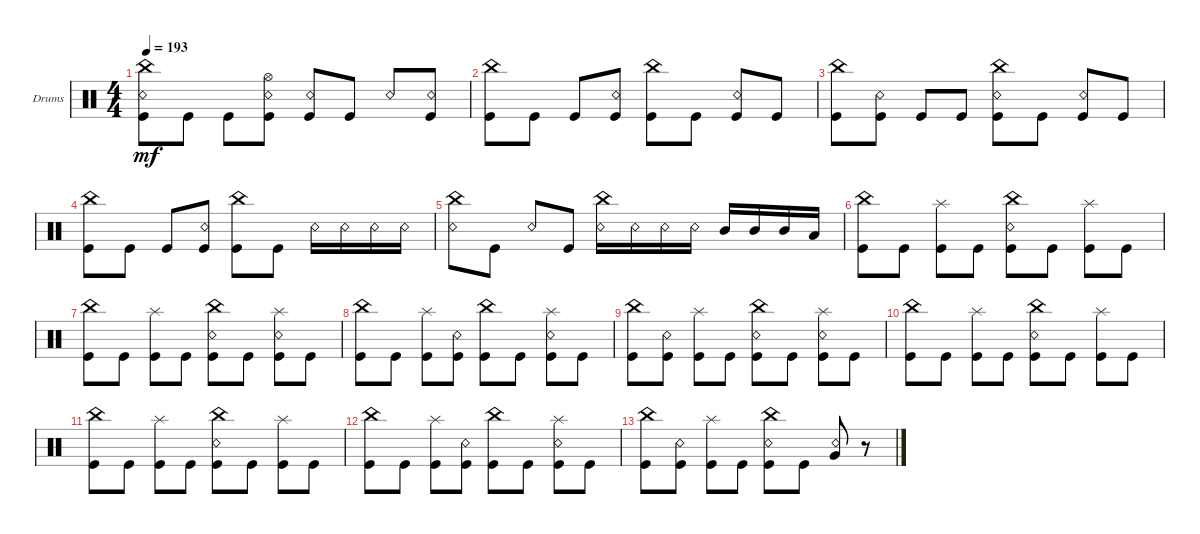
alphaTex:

\defaultSystemsLayout 4
\bracketExtendMode groupsimilarinstruments
\firstSystemTrackNameOrientation horizontal
\otherSystemsTrackNameOrientation horizontal
\track ("Drumkit" "Drums") {multiBarRest instrument percussion}
\staff {score}
\articulation defaults
\ts (4 4)
\tempo 193
\clef neutral
\scale
0.333333
\ks c
("Kick (hit)" "Snare (rim shot)" "China (hit)").8{dy mf} "Kick (hit)".8 "Kick (hit)".8 ("Hi-Hat (open)" "Kick (hit)" "Snare (rim shot)").8 ("Kick (hit)" "Snare (rim shot)").8 "Kick (hit)".8 "Snare (rim shot)".8 ("Kick (hit)" "Snare (rim shot)").8 |
\scale
0.333333 ("Kick (hit)" "China (hit)").8 "Kick (hit)".8 "Kick (hit)".8 ("Kick (hit)" "Snare (rim shot)").8 ("Kick (hit)" "China (hit)").8 "Kick (hit)".8 ("Kick (hit)" "Snare (rim shot)").8 "Kick (hit)".8 |
\scale
0.333333 ("Kick (hit)" "China (hit)").8 ("Snare (rim shot)" "Kick (hit)").8 "Kick (hit)".8 "Kick (hit)".8 ("Kick (hit)" "Snare (rim shot)" "China (hit)").8 "Kick (hit)".8 ("Kick (hit)" "Snare (rim shot)").8 "Kick (hit)".8 |
\scale
0.333333 ("Kick (hit)" "China (hit)").8 "Kick (hit)".8 "Kick (hit)".8 ("Kick (hit)" "Snare (rim shot)").8 ("Kick (hit)" "China (hit)").8 "Kick (hit)".8 "Snare (rim shot)".16 "Snare (rim shot)".16 "Snare (rim shot)".16 "Snare (rim shot)".16 |
\scale
0.333333 ("China (hit)" "Snare (rim shot)").8 "Kick (hit)".8 "Snare (rim shot)".8 "Kick (hit)".8 ("Snare (rim shot)" "China (hit)").16 "Snare (rim shot)".16 "Snare (rim shot)".16 "Snare (rim shot)".16 "Mid Tom (hit)".16 "Mid Tom (hit)".16 "Mid Tom (hit)".16 "Low Tom (hit)".16 |
\scale
0.333333 ("Kick (hit)" "China (hit)").8 "Kick (hit)".8 ("Kick (hit)" "Splash (hit)").8 "Kick (hit)".8 ("Kick (hit)" "China (hit)" "Snare (rim shot)").8 "Kick (hit)".8 ("Kick (hit)" "Splash (hit)").8 "Kick (hit)".8 |
\scale
0.333333 ("Kick (hit)" "China (hit)").8 "Kick (hit)".8 ("Kick (hit)" "Splash (hit)").8 "Kick (hit)".8 ("Kick (hit)" "Snare (rim shot)" "China (hit)").8 "Kick (hit)".8 ("Kick (hit)" "Snare (rim shot)" "Splash (hit)").8 "Kick (hit)".8 |
\scale
0.333333 ("Kick (hit)" "China (hit)").8 "Kick (hit)".8 ("Kick (hit)" "Splash (hit)").8 ("Kick (hit)" "Snare (rim shot)").8 ("Kick (hit)" "China (hit)").8 "Kick (hit)".8 ("Kick (hit)" "Snare (rim shot)" "Splash (hit)").8 "Kick (hit)".8 |
\scale
0.333333 ("Kick (hit)" "China (hit)").8 ("Snare (rim shot)" "Kick (hit)").8 ("Kick (hit)" "Splash (hit)").8 "Kick (hit)".8 ("Kick (hit)" "Snare (rim shot)" "China (hit)").8 "Kick (hit)".8 ("Kick (hit)" "Snare (rim shot)" "Splash (hit)").8 "Kick (hit)".8 |
\scale
0.333333 ("Kick (hit)" "China (hit)").8 "Kick (hit)".8 ("Kick (hit)" "Splash (hit)").8 "Kick (hit)".8 ("Kick (hit)" "China (hit)" "Snare (rim shot)").8 "Kick (hit)".8 ("Kick (hit)" "Splash (hit)").8 "Kick (hit)".8 |
\scale
0.333333 ("Kick (hit)" "China (hit)").8 "Kick (hit)".8 ("Kick (hit)" "Splash (hit)").8 "Kick (hit)".8 ("Kick (hit)" "Snare (rim shot)" "China (hit)").8 "Kick (hit)".8 ("Kick (hit)" "Splash (hit)").8 "Kick (hit)".8 |
\scale
0.333333 ("Kick (hit)" "China (hit)").8 "Kick (hit)".8 ("Kick (hit)" "Splash (hit)").8 ("Kick (hit)" "Snare (rim shot)").8 ("Kick (hit)" "China (hit)").8 "Kick (hit)".8 ("Kick (hit)" "Snare (rim shot)" "Splash (hit)").8 "Kick (hit)".8 |
\scale
0.333333 ("Kick (hit)" "China (hit)").8 ("Snare (rim shot)" "Kick (hit)").8 ("Kick (hit)" "Splash (hit)").8 "Kick (hit)".8 ("Kick (hit)" "Snare (rim shot)" "China (hit)").8 "Kick (hit)".8 ("Snare (rim shot)" "Very Low Tom (hit)").8 r.8
